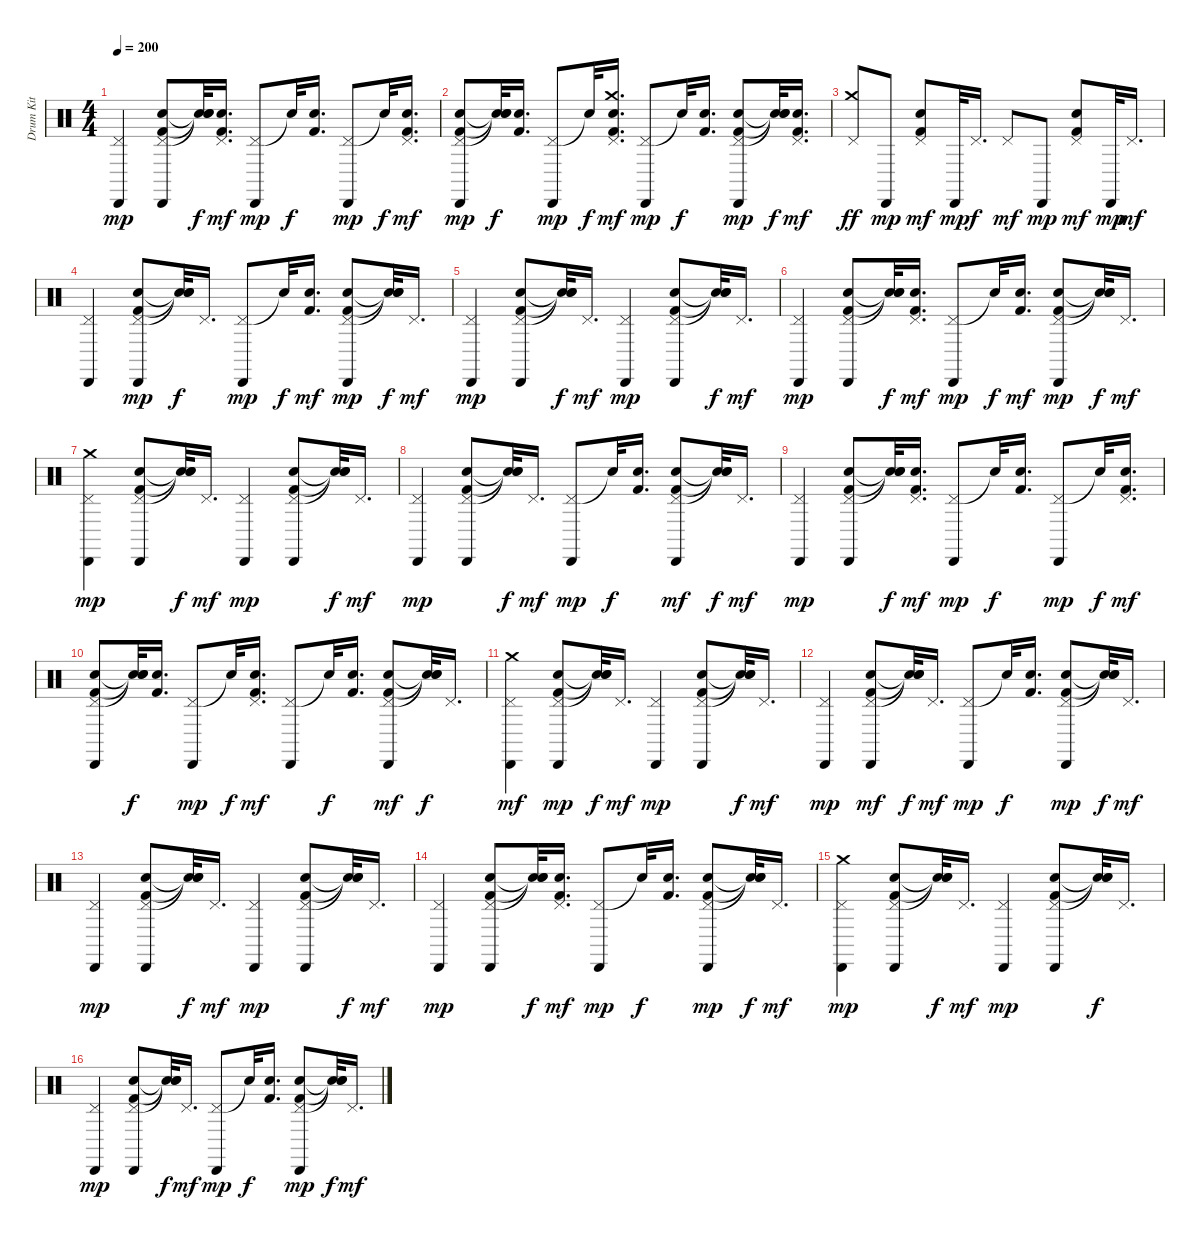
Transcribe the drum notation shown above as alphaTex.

\track ("Drum Kit" "Drum Kit") {instrument percussion}
\staff {score}
\articulation defaults
\ts (4 4)
\tempo 200
\clef neutral
\ks c
("Pedal Hi-Hat (hit)" "Cabasa (hit)").4{dy mp} ("Pedal Hi-Hat (hit)" "Kick (hit) 2" "Snare (hit) 2" "Cabasa (hit)").8 ("Snare (hit)"{t} "Snare (hit)"{t} "Snare (hit)"{t}).32{dy f} ("Kick (hit) 2" "Snare (hit) 2" "Pedal Hi-Hat (hit)").16{d dy mf} ("Pedal Hi-Hat (hit)" "Cabasa (hit)").8{dy mp} "Snare (hit)"{t}.32{dy f} ("Kick (hit) 2" "Snare (hit) 2").16{d} ("Pedal Hi-Hat (hit)" "Cabasa (hit)").8{dy mp} "Snare (hit)"{t}.32{dy f} ("Kick (hit) 2" "Snare (hit) 2" "Pedal Hi-Hat (hit)").16{d dy mf} |
("Pedal Hi-Hat (hit)" "Kick (hit) 2" "Snare (hit) 2" "Cabasa (hit)").8{dy mp} ("Snare (hit)"{t} "Snare (hit)"{t} "Snare (hit)"{t}).32{dy f} ("Kick (hit) 2" "Snare (hit) 2").16{d} ("Pedal Hi-Hat (hit)" "Cabasa (hit)").8{dy mp} "Snare (hit)"{t}.32{dy f} ("Kick (hit) 2" "Snare (hit) 2" "Pedal Hi-Hat (hit)" "Crash medium (hit)").16{d dy mf} ("Pedal Hi-Hat (hit)" "Cabasa (hit)").8{dy mp} "Snare (hit)"{t}.32{dy f} ("Kick (hit) 2" "Snare (hit) 2").16{d} ("Pedal Hi-Hat (hit)" "Kick (hit) 2" "Snare (hit) 2" "Cabasa (hit)").8{dy mp} ("Snare (hit)"{t} "Snare (hit)"{t} "Snare (hit)"{t}).32{dy f} ("Kick (hit) 2" "Snare (hit) 2" "Pedal Hi-Hat (hit)").16{d dy mf} |
("Pedal Hi-Hat (hit)" "Crash medium (hit)").8{dy ff} "Cabasa (hit)".8{dy mp} ("Pedal Hi-Hat (hit)" "Kick (hit) 2" "Snare (hit) 2").8{dy mf} "Cabasa (hit)".32{dy mp} "Pedal Hi-Hat (hit)".16{d dy f} "Pedal Hi-Hat (hit)".8{dy mf} "Cabasa (hit)".8{dy mp} ("Pedal Hi-Hat (hit)" "Kick (hit) 2" "Snare (hit) 2").8{dy mf} "Cabasa (hit)".32{dy mp} "Pedal Hi-Hat (hit)".16{d dy mf} |
("Pedal Hi-Hat (hit)" "Cabasa (hit)").4 ("Pedal Hi-Hat (hit)" "Kick (hit) 2" "Snare (hit) 2" "Cabasa (hit)").8{dy mp} ("Snare (hit)"{t} "Snare (hit)"{t} "Snare (hit)"{t}).32{dy f} "Pedal Hi-Hat (hit)".16{d} ("Pedal Hi-Hat (hit)" "Cabasa (hit)").8{dy mp} "Snare (hit)"{t}.32{dy f} ("Kick (hit) 2" "Snare (hit) 2").16{d dy mf} ("Pedal Hi-Hat (hit)" "Kick (hit) 2" "Snare (hit) 2" "Cabasa (hit)").8{dy mp} ("Snare (hit)"{t} "Snare (hit)"{t} "Snare (hit)"{t}).32{dy f} "Pedal Hi-Hat (hit)".16{d dy mf} |
("Pedal Hi-Hat (hit)" "Cabasa (hit)").4{dy mp} ("Pedal Hi-Hat (hit)" "Kick (hit) 2" "Snare (hit) 2" "Cabasa (hit)").8 ("Snare (hit)"{t} "Snare (hit)"{t} "Snare (hit)"{t}).32{dy f} "Pedal Hi-Hat (hit)".16{d dy mf} ("Pedal Hi-Hat (hit)" "Cabasa (hit)").4{dy mp} ("Pedal Hi-Hat (hit)" "Kick (hit) 2" "Snare (hit) 2" "Cabasa (hit)").8 ("Snare (hit)"{t} "Snare (hit)"{t} "Snare (hit)"{t}).32{dy f} "Pedal Hi-Hat (hit)".16{d dy mf} |
("Pedal Hi-Hat (hit)" "Cabasa (hit)").4{dy mp} ("Pedal Hi-Hat (hit)" "Kick (hit) 2" "Snare (hit) 2" "Cabasa (hit)").8 ("Snare (hit)"{t} "Snare (hit)"{t} "Snare (hit)"{t}).32{dy f} ("Kick (hit) 2" "Snare (hit) 2" "Pedal Hi-Hat (hit)").16{d dy mf} ("Pedal Hi-Hat (hit)" "Cabasa (hit)").8{dy mp} "Snare (hit)"{t}.32{dy f} ("Kick (hit) 2" "Snare (hit) 2").16{d dy mf} ("Pedal Hi-Hat (hit)" "Kick (hit) 2" "Snare (hit) 2" "Cabasa (hit)").8{dy mp} ("Snare (hit)"{t} "Snare (hit)"{t} "Snare (hit)"{t}).32{dy f} "Pedal Hi-Hat (hit)".16{d dy mf} |
("Pedal Hi-Hat (hit)" "Crash medium (hit)" "Cabasa (hit)").4{dy mp} ("Pedal Hi-Hat (hit)" "Kick (hit) 2" "Snare (hit) 2" "Cabasa (hit)").8 ("Snare (hit)"{t} "Snare (hit)"{t} "Snare (hit)"{t}).32{dy f} "Pedal Hi-Hat (hit)".16{d dy mf} ("Pedal Hi-Hat (hit)" "Cabasa (hit)").4{dy mp} ("Pedal Hi-Hat (hit)" "Kick (hit) 2" "Snare (hit) 2" "Cabasa (hit)").8 ("Snare (hit)"{t} "Snare (hit)"{t} "Snare (hit)"{t}).32{dy f} "Pedal Hi-Hat (hit)".16{d dy mf} |
("Pedal Hi-Hat (hit)" "Cabasa (hit)").4{dy mp} ("Pedal Hi-Hat (hit)" "Kick (hit) 2" "Snare (hit) 2" "Cabasa (hit)").8 ("Snare (hit)"{t} "Snare (hit)"{t} "Snare (hit)"{t}).32{dy f} "Pedal Hi-Hat (hit)".16{d dy mf} ("Pedal Hi-Hat (hit)" "Cabasa (hit)").8{dy mp} "Snare (hit)"{t}.32{dy f} ("Kick (hit) 2" "Snare (hit) 2").16{d} ("Pedal Hi-Hat (hit)" "Kick (hit) 2" "Snare (hit) 2" "Cabasa (hit)").8{dy mf} ("Snare (hit)"{t} "Snare (hit)"{t} "Snare (hit)"{t}).32{dy f} "Pedal Hi-Hat (hit)".16{d dy mf} |
("Pedal Hi-Hat (hit)" "Cabasa (hit)").4{dy mp} ("Pedal Hi-Hat (hit)" "Kick (hit) 2" "Snare (hit) 2" "Cabasa (hit)").8 ("Snare (hit)"{t} "Snare (hit)"{t} "Snare (hit)"{t}).32{dy f} ("Kick (hit) 2" "Snare (hit) 2" "Pedal Hi-Hat (hit)").16{d dy mf} ("Pedal Hi-Hat (hit)" "Cabasa (hit)").8{dy mp} "Snare (hit)"{t}.32{dy f} ("Kick (hit) 2" "Snare (hit) 2").16{d} ("Pedal Hi-Hat (hit)" "Cabasa (hit)").8{dy mp} "Snare (hit)"{t}.32{dy f} ("Kick (hit) 2" "Snare (hit) 2" "Pedal Hi-Hat (hit)").16{d dy mf} |
("Pedal Hi-Hat (hit)" "Kick (hit) 2" "Snare (hit) 2" "Cabasa (hit)").8 ("Snare (hit)"{t} "Snare (hit)"{t} "Snare (hit)"{t}).32{dy f} ("Kick (hit) 2" "Snare (hit) 2").16{d} ("Pedal Hi-Hat (hit)" "Cabasa (hit)").8{dy mp} "Snare (hit)"{t}.32{dy f} ("Kick (hit) 2" "Snare (hit) 2" "Pedal Hi-Hat (hit)").16{d dy mf} ("Pedal Hi-Hat (hit)" "Cabasa (hit)").8 "Snare (hit)"{t}.32{dy f} ("Kick (hit) 2" "Snare (hit) 2").16{d} ("Pedal Hi-Hat (hit)" "Kick (hit) 2" "Snare (hit) 2" "Cabasa (hit)").8{dy mf} ("Snare (hit)"{t} "Snare (hit)"{t} "Snare (hit)"{t}).32{dy f} "Pedal Hi-Hat (hit)".16{d} |
("Pedal Hi-Hat (hit)" "Crash medium (hit)" "Cabasa (hit)").4{dy mf} ("Pedal Hi-Hat (hit)" "Kick (hit) 2" "Snare (hit) 2" "Cabasa (hit)").8{dy mp} ("Snare (hit)"{t} "Snare (hit)"{t} "Snare (hit)"{t}).32{dy f} "Pedal Hi-Hat (hit)".16{d dy mf} ("Pedal Hi-Hat (hit)" "Cabasa (hit)").4{dy mp} ("Pedal Hi-Hat (hit)" "Kick (hit) 2" "Snare (hit) 2" "Cabasa (hit)").8 ("Snare (hit)"{t} "Snare (hit)"{t} "Snare (hit)"{t}).32{dy f} "Pedal Hi-Hat (hit)".16{d dy mf} |
("Pedal Hi-Hat (hit)" "Cabasa (hit)").4{dy mp} ("Pedal Hi-Hat (hit)" "Kick (hit) 2" "Snare (hit) 2" "Cabasa (hit)").8{dy mf} ("Snare (hit)"{t} "Snare (hit)"{t} "Snare (hit)"{t}).32{dy f} "Pedal Hi-Hat (hit)".16{d dy mf} ("Pedal Hi-Hat (hit)" "Cabasa (hit)").8{dy mp} "Snare (hit)"{t}.32{dy f} ("Kick (hit) 2" "Snare (hit) 2").16{d} ("Pedal Hi-Hat (hit)" "Kick (hit) 2" "Snare (hit) 2" "Cabasa (hit)").8{dy mp} ("Snare (hit)"{t} "Snare (hit)"{t} "Snare (hit)"{t}).32{dy f} "Pedal Hi-Hat (hit)".16{d dy mf} |
("Pedal Hi-Hat (hit)" "Cabasa (hit)").4{dy mp} ("Pedal Hi-Hat (hit)" "Kick (hit) 2" "Snare (hit) 2" "Cabasa (hit)").8 ("Snare (hit)"{t} "Snare (hit)"{t} "Snare (hit)"{t}).32{dy f} "Pedal Hi-Hat (hit)".16{d dy mf} ("Pedal Hi-Hat (hit)" "Cabasa (hit)").4{dy mp} ("Pedal Hi-Hat (hit)" "Kick (hit) 2" "Snare (hit) 2" "Cabasa (hit)").8 ("Snare (hit)"{t} "Snare (hit)"{t} "Snare (hit)"{t}).32{dy f} "Pedal Hi-Hat (hit)".16{d dy mf} |
("Pedal Hi-Hat (hit)" "Cabasa (hit)").4{dy mp} ("Pedal Hi-Hat (hit)" "Kick (hit) 2" "Snare (hit) 2" "Cabasa (hit)").8 ("Snare (hit)"{t} "Snare (hit)"{t} "Snare (hit)"{t}).32{dy f} ("Kick (hit) 2" "Snare (hit) 2" "Pedal Hi-Hat (hit)").16{d dy mf} ("Pedal Hi-Hat (hit)" "Cabasa (hit)").8{dy mp} "Snare (hit)"{t}.32{dy f} ("Kick (hit) 2" "Snare (hit) 2").16{d} ("Pedal Hi-Hat (hit)" "Kick (hit) 2" "Snare (hit) 2" "Cabasa (hit)").8{dy mp} ("Snare (hit)"{t} "Snare (hit)"{t} "Snare (hit)"{t}).32{dy f} "Pedal Hi-Hat (hit)".16{d dy mf} |
("Pedal Hi-Hat (hit)" "Crash medium (hit)" "Cabasa (hit)").4{dy mp} ("Pedal Hi-Hat (hit)" "Kick (hit) 2" "Snare (hit) 2" "Cabasa (hit)").8 ("Snare (hit)"{t} "Snare (hit)"{t} "Snare (hit)"{t}).32{dy f} "Pedal Hi-Hat (hit)".16{d dy mf} ("Pedal Hi-Hat (hit)" "Cabasa (hit)").4{dy mp} ("Pedal Hi-Hat (hit)" "Kick (hit) 2" "Snare (hit) 2" "Cabasa (hit)").8 ("Snare (hit)"{t} "Snare (hit)"{t} "Snare (hit)"{t}).32{dy f} "Pedal Hi-Hat (hit)".16{d} |
("Pedal Hi-Hat (hit)" "Cabasa (hit)").4{dy mp} ("Pedal Hi-Hat (hit)" "Kick (hit) 2" "Snare (hit) 2" "Cabasa (hit)").8 ("Snare (hit)"{t} "Snare (hit)"{t} "Snare (hit)"{t}).32{dy f} "Pedal Hi-Hat (hit)".16{d dy mf} ("Pedal Hi-Hat (hit)" "Cabasa (hit)").8{dy mp} "Snare (hit)"{t}.32{dy f} ("Kick (hit) 2" "Snare (hit) 2").16{d} ("Pedal Hi-Hat (hit)" "Kick (hit) 2" "Snare (hit) 2" "Cabasa (hit)").8{dy mp} ("Snare (hit)"{t} "Snare (hit)"{t} "Snare (hit)"{t}).32{dy f} "Pedal Hi-Hat (hit)".16{d dy mf}
